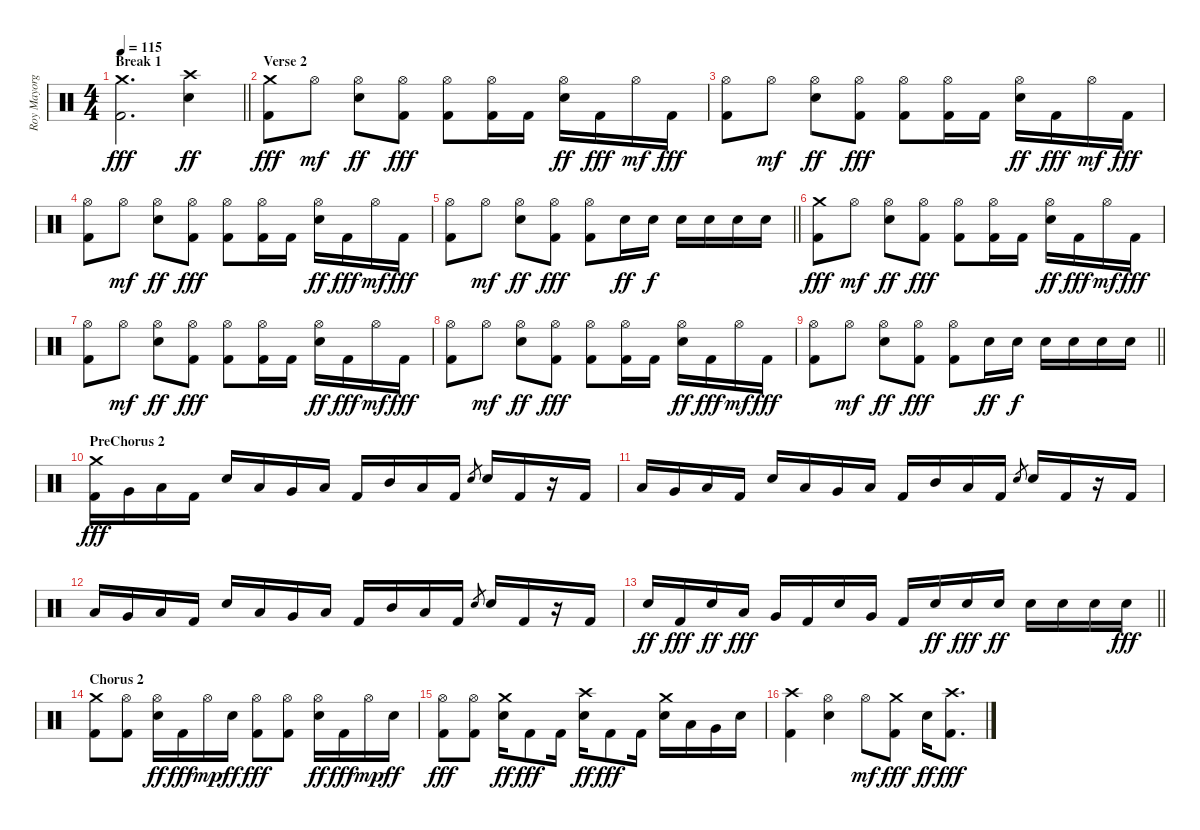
\track ("Roy Mayorga" "Roy Mayorg") {instrument percussion}
\staff {score}
\articulation defaults
\ts (4 4)
\section ("" "Break 1")
\tempo 115
\clef neutral
\barLineRight lightlight
\ks c
("Crash medium (hit)" "Kick (hit) 2").2{d dy fff} ("Crash high (hit)" "Electric Snare (hit)").4{dy ff} |
\section ("" "Verse 2")
("Crash medium (hit)" "Kick (hit) 2").8{dy fff} "Hi-Hat (open)".8{dy mf} ("Hi-Hat (open)" "Electric Snare (hit)").8{dy ff} ("Hi-Hat (open)" "Kick (hit) 2").8{dy fff} ("Hi-Hat (open)" "Kick (hit) 2").8 ("Hi-Hat (open)" "Kick (hit) 2").16 "Kick (hit) 2".16 ("Hi-Hat (open)" "Electric Snare (hit)").16{dy ff} "Kick (hit) 2".16{dy fff} "Hi-Hat (open)".16{dy mf} "Kick (hit) 2".16{dy fff} |
("Hi-Hat (open)" "Kick (hit) 2").8 "Hi-Hat (open)".8{dy mf} ("Hi-Hat (open)" "Electric Snare (hit)").8{dy ff} ("Hi-Hat (open)" "Kick (hit) 2").8{dy fff} ("Hi-Hat (open)" "Kick (hit) 2").8 ("Hi-Hat (open)" "Kick (hit) 2").16 "Kick (hit) 2".16 ("Hi-Hat (open)" "Electric Snare (hit)").16{dy ff} "Kick (hit) 2".16{dy fff} "Hi-Hat (open)".16{dy mf} "Kick (hit) 2".16{dy fff} |
("Hi-Hat (open)" "Kick (hit) 2").8 "Hi-Hat (open)".8{dy mf} ("Hi-Hat (open)" "Electric Snare (hit)").8{dy ff} ("Hi-Hat (open)" "Kick (hit) 2").8{dy fff} ("Hi-Hat (open)" "Kick (hit) 2").8 ("Hi-Hat (open)" "Kick (hit) 2").16 "Kick (hit) 2".16 ("Hi-Hat (open)" "Electric Snare (hit)").16{dy ff} "Kick (hit) 2".16{dy fff} "Hi-Hat (open)".16{dy mf} "Kick (hit) 2".16{dy fff} |
\barLineRight lightlight
("Hi-Hat (open)" "Kick (hit) 2").8 "Hi-Hat (open)".8{dy mf} ("Hi-Hat (open)" "Electric Snare (hit)").8{dy ff} ("Hi-Hat (open)" "Kick (hit) 2").8{dy fff} ("Hi-Hat (open)" "Kick (hit) 2").8 "Electric Snare (hit)".16{dy ff} "Electric Snare (hit)".16{dy f} "Electric Snare (hit)".16 "Electric Snare (hit)".16 "Electric Snare (hit)".16 "Electric Snare (hit)".16 |
("Crash medium (hit)" "Kick (hit) 2").8{dy fff} "Hi-Hat (open)".8{dy mf} ("Hi-Hat (open)" "Electric Snare (hit)").8{dy ff} ("Hi-Hat (open)" "Kick (hit) 2").8{dy fff} ("Hi-Hat (open)" "Kick (hit) 2").8 ("Hi-Hat (open)" "Kick (hit) 2").16 "Kick (hit) 2".16 ("Hi-Hat (open)" "Electric Snare (hit)").16{dy ff} "Kick (hit) 2".16{dy fff} "Hi-Hat (open)".16{dy mf} "Kick (hit) 2".16{dy fff} |
("Hi-Hat (open)" "Kick (hit) 2").8 "Hi-Hat (open)".8{dy mf} ("Hi-Hat (open)" "Electric Snare (hit)").8{dy ff} ("Hi-Hat (open)" "Kick (hit) 2").8{dy fff} ("Hi-Hat (open)" "Kick (hit) 2").8 ("Hi-Hat (open)" "Kick (hit) 2").16 "Kick (hit) 2".16 ("Hi-Hat (open)" "Electric Snare (hit)").16{dy ff} "Kick (hit) 2".16{dy fff} "Hi-Hat (open)".16{dy mf} "Kick (hit) 2".16{dy fff} |
("Hi-Hat (open)" "Kick (hit) 2").8 "Hi-Hat (open)".8{dy mf} ("Hi-Hat (open)" "Electric Snare (hit)").8{dy ff} ("Hi-Hat (open)" "Kick (hit) 2").8{dy fff} ("Hi-Hat (open)" "Kick (hit) 2").8 ("Hi-Hat (open)" "Kick (hit) 2").16 "Kick (hit) 2".16 ("Hi-Hat (open)" "Electric Snare (hit)").16{dy ff} "Kick (hit) 2".16{dy fff} "Hi-Hat (open)".16{dy mf} "Kick (hit) 2".16{dy fff} |
\barLineRight lightlight
("Hi-Hat (open)" "Kick (hit) 2").8 "Hi-Hat (open)".8{dy mf} ("Hi-Hat (open)" "Electric Snare (hit)").8{dy ff} ("Hi-Hat (open)" "Kick (hit) 2").8{dy fff} ("Hi-Hat (open)" "Kick (hit) 2").8 "Electric Snare (hit)".16{dy ff} "Electric Snare (hit)".16{dy f} "Electric Snare (hit)".16 "Electric Snare (hit)".16 "Electric Snare (hit)".16 "Electric Snare (hit)".16 |
\section ("" "PreChorus 2")
("Crash medium (hit)" "Kick (hit) 2").16{dy fff} "Very Low Tom (hit)".16 "Low Floor Tom (hit)".16 "Kick (hit) 2".16 "Electric Snare (hit)".16 "Low Tom (hit)".16 "Very Low Tom (hit)".16 "Low Floor Tom (hit)".16 "Kick (hit) 2".16 "Mid Tom (hit)".16 "Low Tom (hit)".16 "Kick (hit) 2".16 "Electric Snare (hit)".8{gr} "Electric Snare (hit)".16 "Kick (hit) 2".16 r.16 "Kick (hit) 2".16 |
"Low Tom (hit)".16 "Very Low Tom (hit)".16 "Low Floor Tom (hit)".16 "Kick (hit) 2".16 "Electric Snare (hit)".16 "Low Tom (hit)".16 "Very Low Tom (hit)".16 "Low Floor Tom (hit)".16 "Kick (hit) 2".16 "Mid Tom (hit)".16 "Low Tom (hit)".16 "Kick (hit) 2".16 "Electric Snare (hit)".8{gr} "Electric Snare (hit)".16 "Kick (hit) 2".16 r.16 "Kick (hit) 2".16 |
"Low Tom (hit)".16 "Very Low Tom (hit)".16 "Low Floor Tom (hit)".16 "Kick (hit) 2".16 "Electric Snare (hit)".16 "Low Tom (hit)".16 "Very Low Tom (hit)".16 "Low Floor Tom (hit)".16 "Kick (hit) 2".16 "Mid Tom (hit)".16 "Low Tom (hit)".16 "Kick (hit) 2".16 "Electric Snare (hit)".8{gr} "Electric Snare (hit)".16 "Kick (hit) 2".16 r.16 "Kick (hit) 2".16 |
\barLineRight lightlight "Electric Snare (hit)".16{dy ff} "Kick (hit) 2".16{dy fff} "Electric Snare (hit)".16{dy ff} "Low Tom (hit)".16{dy fff} "Very Low Tom (hit)".16 "Kick (hit) 2".16 "Electric Snare (hit)".16 "Very Low Tom (hit)".16 "Kick (hit) 2".16 "Electric Snare (hit)".16{dy ff} "Electric Snare (hit)".16{dy fff} "Electric Snare (hit)".16{dy ff} "Electric Snare (hit)".16 "Electric Snare (hit)".16 "Electric Snare (hit)".16 "Electric Snare (hit)".16{dy fff}
|
\section ("" "Chorus 2")
("Crash medium (hit)" "Kick (hit) 2").8 ("Hi-Hat (open)" "Kick (hit) 2").8 ("Hi-Hat (open)" "Electric Snare (hit)").16{dy ff} "Kick (hit) 2".16{dy fff} "Hi-Hat (open)".16{dy mp} "Electric Snare (hit)".16{dy ff} ("Hi-Hat (open)" "Kick (hit) 2").8{dy fff} ("Hi-Hat (open)" "Kick (hit) 2").8 ("Hi-Hat (open)" "Electric Snare (hit)").16{dy ff} "Kick (hit) 2".16{dy fff} "Hi-Hat (open)".16{dy mp} "Electric Snare (hit)".16{dy ff} |
("Hi-Hat (open)" "Kick (hit) 2").8{dy fff} ("Hi-Hat (open)" "Kick (hit) 2").8 ("Crash medium (hit)" "Electric Snare (hit)").16{dy ff} "Kick (hit) 2".8{dy fff} "Kick (hit) 2".16 ("Crash high (hit)" "Electric Snare (hit)").16{dy ff} "Kick (hit) 2".8{dy fff} "Kick (hit) 2".16 ("Crash medium (hit)" "Electric Snare (hit)").16 "Low Tom (hit)".16 "Very Low Tom (hit)".16 "Electric Snare (hit)".16 |
("Crash high (hit)" "Kick (hit) 2").4 ("Hi-Hat (open)" "Electric Snare (hit)").4 "Hi-Hat (open)".8{dy mf} ("Crash medium (hit)" "Kick (hit) 2").8{dy fff} "Electric Snare (hit)".16{dy ff} ("Crash high (hit)" "Kick (hit) 2").8{d dy fff}
